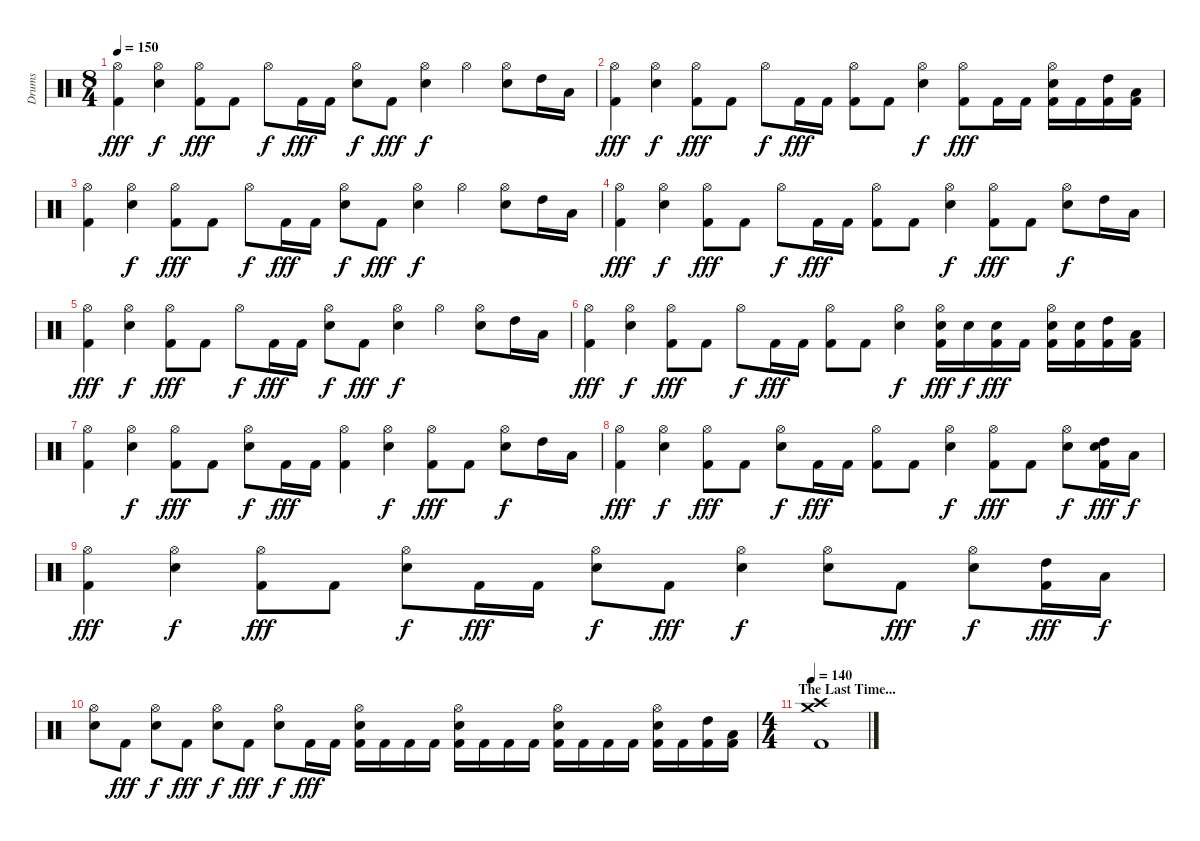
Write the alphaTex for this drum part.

\track ("Drums" "Drums") {instrument percussion}
\staff {score}
\articulation defaults
\ts (8 4)
\tempo 150
\clef neutral
\ks c
("Hi-Hat (open)" "Kick (hit) 2").4{dy fff} ("Hi-Hat (open)" "Electric Snare (hit)").4{dy f} ("Hi-Hat (open)" "Kick (hit) 2").8{dy fff} "Kick (hit) 2".8 "Hi-Hat (open)".8{dy f} "Kick (hit) 2".16{dy fff} "Kick (hit) 2".16 ("Hi-Hat (open)" "Electric Snare (hit)").8{dy f} "Kick (hit) 2".8{dy fff} ("Hi-Hat (open)" "Electric Snare (hit)").4{dy f} "Hi-Hat (open)".4 ("Hi-Hat (open)" "Electric Snare (hit)").8 "High Tom (hit)".16 "Low Tom (hit)".16 |
("Hi-Hat (open)" "Kick (hit) 2").4{dy fff} ("Hi-Hat (open)" "Electric Snare (hit)").4{dy f} ("Hi-Hat (open)" "Kick (hit) 2").8{dy fff} "Kick (hit) 2".8 "Hi-Hat (open)".8{dy f} "Kick (hit) 2".16{dy fff} "Kick (hit) 2".16 ("Hi-Hat (open)" "Kick (hit) 2").8 "Kick (hit) 2".8 ("Hi-Hat (open)" "Electric Snare (hit)").4{dy f} ("Hi-Hat (open)" "Kick (hit) 2").8{dy fff} "Kick (hit) 2".16 "Kick (hit) 2".16 ("Hi-Hat (open)" "Electric Snare (hit)" "Kick (hit) 2").16 "Kick (hit) 2".16 ("High Tom (hit)" "Kick (hit) 2").16 ("Low Tom (hit)" "Kick (hit) 2").16 |
("Hi-Hat (open)" "Kick (hit) 2").4 ("Hi-Hat (open)" "Electric Snare (hit)").4{dy f} ("Hi-Hat (open)" "Kick (hit) 2").8{dy fff} "Kick (hit) 2".8 "Hi-Hat (open)".8{dy f} "Kick (hit) 2".16{dy fff} "Kick (hit) 2".16 ("Hi-Hat (open)" "Electric Snare (hit)").8{dy f} "Kick (hit) 2".8{dy fff} ("Hi-Hat (open)" "Electric Snare (hit)").4{dy f} "Hi-Hat (open)".4 ("Hi-Hat (open)" "Electric Snare (hit)").8 "High Tom (hit)".16 "Low Tom (hit)".16 |
("Hi-Hat (open)" "Kick (hit) 2").4{dy fff} ("Hi-Hat (open)" "Electric Snare (hit)").4{dy f} ("Hi-Hat (open)" "Kick (hit) 2").8{dy fff} "Kick (hit) 2".8 "Hi-Hat (open)".8{dy f} "Kick (hit) 2".16{dy fff} "Kick (hit) 2".16 ("Hi-Hat (open)" "Kick (hit) 2").8 "Kick (hit) 2".8 ("Hi-Hat (open)" "Electric Snare (hit)").4{dy f} ("Hi-Hat (open)" "Kick (hit) 2").8{dy fff} "Kick (hit) 2".8 ("Hi-Hat (open)" "Electric Snare (hit)").8{dy f} "High Tom (hit)".16 "Low Tom (hit)".16 |
("Hi-Hat (open)" "Kick (hit) 2").4{dy fff} ("Hi-Hat (open)" "Electric Snare (hit)").4{dy f} ("Hi-Hat (open)" "Kick (hit) 2").8{dy fff} "Kick (hit) 2".8 "Hi-Hat (open)".8{dy f} "Kick (hit) 2".16{dy fff} "Kick (hit) 2".16 ("Hi-Hat (open)" "Electric Snare (hit)").8{dy f} "Kick (hit) 2".8{dy fff} ("Hi-Hat (open)" "Electric Snare (hit)").4{dy f} "Hi-Hat (open)".4 ("Hi-Hat (open)" "Electric Snare (hit)").8 "High Tom (hit)".16 "Low Tom (hit)".16 |
("Hi-Hat (open)" "Kick (hit) 2").4{dy fff} ("Hi-Hat (open)" "Electric Snare (hit)").4{dy f} ("Hi-Hat (open)" "Kick (hit) 2").8{dy fff} "Kick (hit) 2".8 "Hi-Hat (open)".8{dy f} "Kick (hit) 2".16{dy fff} "Kick (hit) 2".16 ("Hi-Hat (open)" "Kick (hit) 2").8 "Kick (hit) 2".8 ("Hi-Hat (open)" "Electric Snare (hit)").4{dy f} ("Hi-Hat (open)" "Electric Snare (hit)" "Kick (hit) 2").16{dy fff} "Electric Snare (hit)".16{dy f} ("Electric Snare (hit)" "Kick (hit) 2").16{dy fff} "Kick (hit) 2".16 ("Hi-Hat (open)" "Electric Snare (hit)" "Kick (hit) 2").16 ("Electric Snare (hit)" "Kick (hit) 2").16 ("High Tom (hit)" "Kick (hit) 2").16 ("Low Tom (hit)" "Kick (hit) 2").16 |
("Hi-Hat (open)" "Kick (hit) 2").4 ("Hi-Hat (open)" "Electric Snare (hit)").4{dy f} ("Hi-Hat (open)" "Kick (hit) 2").8{dy fff} "Kick (hit) 2".8 ("Hi-Hat (open)" "Electric Snare (hit)").8{dy f} "Kick (hit) 2".16{dy fff} "Kick (hit) 2".16 ("Hi-Hat (open)" "Kick (hit) 2").4 ("Hi-Hat (open)" "Electric Snare (hit)").4{dy f} ("Hi-Hat (open)" "Kick (hit) 2").8{dy fff} "Kick (hit) 2".8 ("Hi-Hat (open)" "Electric Snare (hit)").8{dy f} "High Tom (hit)".16 "Low Tom (hit)".16 |
("Hi-Hat (open)" "Kick (hit) 2").4{dy fff} ("Hi-Hat (open)" "Electric Snare (hit)").4{dy f} ("Hi-Hat (open)" "Kick (hit) 2").8{dy fff} "Kick (hit) 2".8 ("Hi-Hat (open)" "Electric Snare (hit)").8{dy f} "Kick (hit) 2".16{dy fff} "Kick (hit) 2".16 ("Hi-Hat (open)" "Kick (hit) 2").8 "Kick (hit) 2".8 ("Hi-Hat (open)" "Electric Snare (hit)").4{dy f} ("Hi-Hat (open)" "Kick (hit) 2").8{dy fff} "Kick (hit) 2".8 ("Hi-Hat (open)" "Electric Snare (hit)").8{dy f} ("High Tom (hit)" "Electric Snare (hit)" "Kick (hit) 2").16{dy fff} "Low Tom (hit)".16{dy f} |
("Hi-Hat (open)" "Kick (hit) 2").4{dy fff} ("Hi-Hat (open)" "Electric Snare (hit)").4{dy f} ("Hi-Hat (open)" "Kick (hit) 2").8{dy fff} "Kick (hit) 2".8 ("Hi-Hat (open)" "Electric Snare (hit)").8{dy f} "Kick (hit) 2".16{dy fff} "Kick (hit) 2".16 ("Hi-Hat (open)" "Electric Snare (hit)").8{dy f} "Kick (hit) 2".8{dy fff} ("Hi-Hat (open)" "Electric Snare (hit)").4{dy f} ("Hi-Hat (open)" "Electric Snare (hit)").8 "Kick (hit) 2".8{dy fff} ("Hi-Hat (open)" "Electric Snare (hit)").8{dy f} ("High Tom (hit)" "Kick (hit) 2").16{dy fff} "Low Tom (hit)".16{dy f} |
("Hi-Hat (open)" "Electric Snare (hit)").8 "Kick (hit) 2".8{dy fff} ("Hi-Hat (open)" "Electric Snare (hit)").8{dy f} "Kick (hit) 2".8{dy fff} ("Hi-Hat (open)" "Electric Snare (hit)").8{dy f} "Kick (hit) 2".8{dy fff} ("Hi-Hat (open)" "Electric Snare (hit)").8{dy f} "Kick (hit) 2".16{dy fff} "Kick (hit) 2".16 ("Hi-Hat (open)" "Electric Snare (hit)" "Kick (hit) 2").16 "Kick (hit) 2".16 "Kick (hit) 2".16 "Kick (hit) 2".16 ("Hi-Hat (open)" "Electric Snare (hit)" "Kick (hit) 2").16 "Kick (hit) 2".16 "Kick (hit) 2".16 "Kick (hit) 2".16 ("Hi-Hat (open)" "Electric Snare (hit)" "Kick (hit) 2").16 "Kick (hit) 2".16 "Kick (hit) 2".16 "Kick (hit) 2".16 ("Hi-Hat (open)" "Electric Snare (hit)" "Kick (hit) 2").16 "Kick (hit) 2".16 ("High Tom (hit)" "Kick (hit) 2").16 ("Low Tom (hit)" "Kick (hit) 2").16 |
\ts (4 4)
\section ("" "The Last Time...")
\tempo 140
("Crash high (hit)" "Crash medium (hit)" "Kick (hit) 2").1
